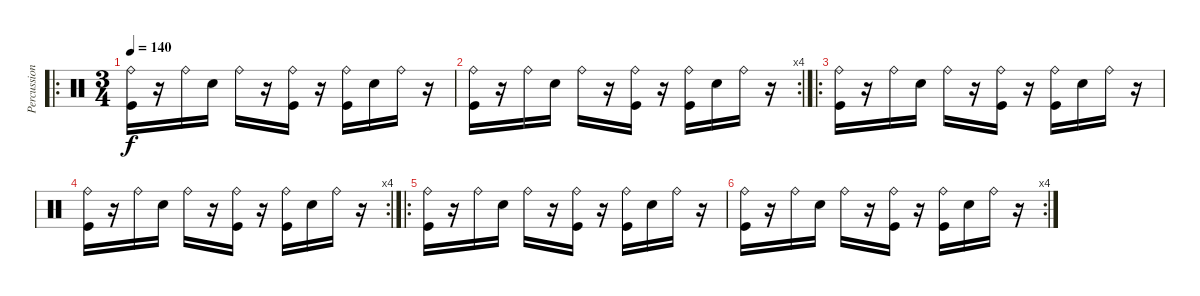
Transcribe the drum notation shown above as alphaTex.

\track ("Percussions" "Percussion") {instrument percussion}
\staff {score}
\articulation defaults
\ro
\ts (3 4)
\tempo 140
\clef neutral
\ks c
("Ride (bell)" "Kick (hit)").16{dy f} r.16 "Ride (bell)".16 "Electric Snare (hit)".16 "Ride (bell)".16 r.16 ("Ride (bell)" "Kick (hit)").16 r.16 ("Ride (bell)" "Kick (hit)").16 "Electric Snare (hit)".16 "Ride (bell)".16 r.16 |
\rc 4
("Ride (bell)" "Kick (hit)").16 r.16 "Ride (bell)".16 "Electric Snare (hit)".16 "Ride (bell)".16 r.16 ("Ride (bell)" "Kick (hit)").16 r.16 ("Ride (bell)" "Kick (hit)").16 "Electric Snare (hit)".16 "Ride (bell)".16 r.16 |
\ro
("Ride (bell)" "Kick (hit)").16 r.16 "Ride (bell)".16 "Electric Snare (hit)".16 "Ride (bell)".16 r.16 ("Ride (bell)" "Kick (hit)").16 r.16 ("Ride (bell)" "Kick (hit)").16 "Electric Snare (hit)".16 "Ride (bell)".16 r.16 |
\rc 4
("Ride (bell)" "Kick (hit)").16 r.16 "Ride (bell)".16 "Electric Snare (hit)".16 "Ride (bell)".16 r.16 ("Ride (bell)" "Kick (hit)").16 r.16 ("Ride (bell)" "Kick (hit)").16 "Electric Snare (hit)".16 "Ride (bell)".16 r.16 |
\ro
("Ride (bell)" "Kick (hit)").16 r.16 "Ride (bell)".16 "Electric Snare (hit)".16 "Ride (bell)".16 r.16 ("Ride (bell)" "Kick (hit)").16 r.16 ("Ride (bell)" "Kick (hit)").16 "Electric Snare (hit)".16 "Ride (bell)".16 r.16 |
\rc 4
("Ride (bell)" "Kick (hit)").16 r.16 "Ride (bell)".16 "Electric Snare (hit)".16 "Ride (bell)".16 r.16 ("Ride (bell)" "Kick (hit)").16 r.16 ("Ride (bell)" "Kick (hit)").16 "Electric Snare (hit)".16 "Ride (bell)".16 r.16
